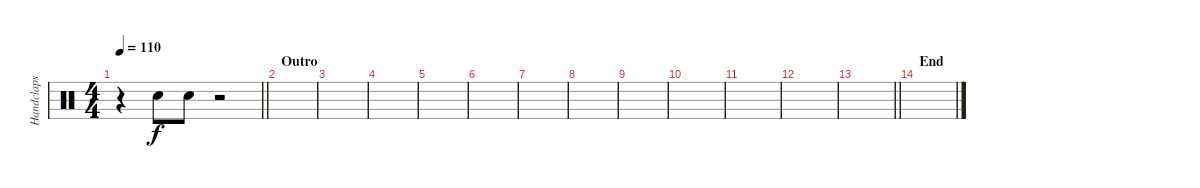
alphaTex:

\track ("Handclaps" "Handclaps") {instrument percussion}
\staff {score}
\articulation defaults
\ts (4 4)
\tempo 110
\clef neutral
\barLineRight lightlight
\ks c
r.4{dy f} "Hand Clap (hit)".8 "Hand Clap (hit)".8 r.2 |
\section ("" "Outro")
|
|
|
|
|
|
|
|
|
|
|
\barLineRight lightlight
|
\section ("" "End")
